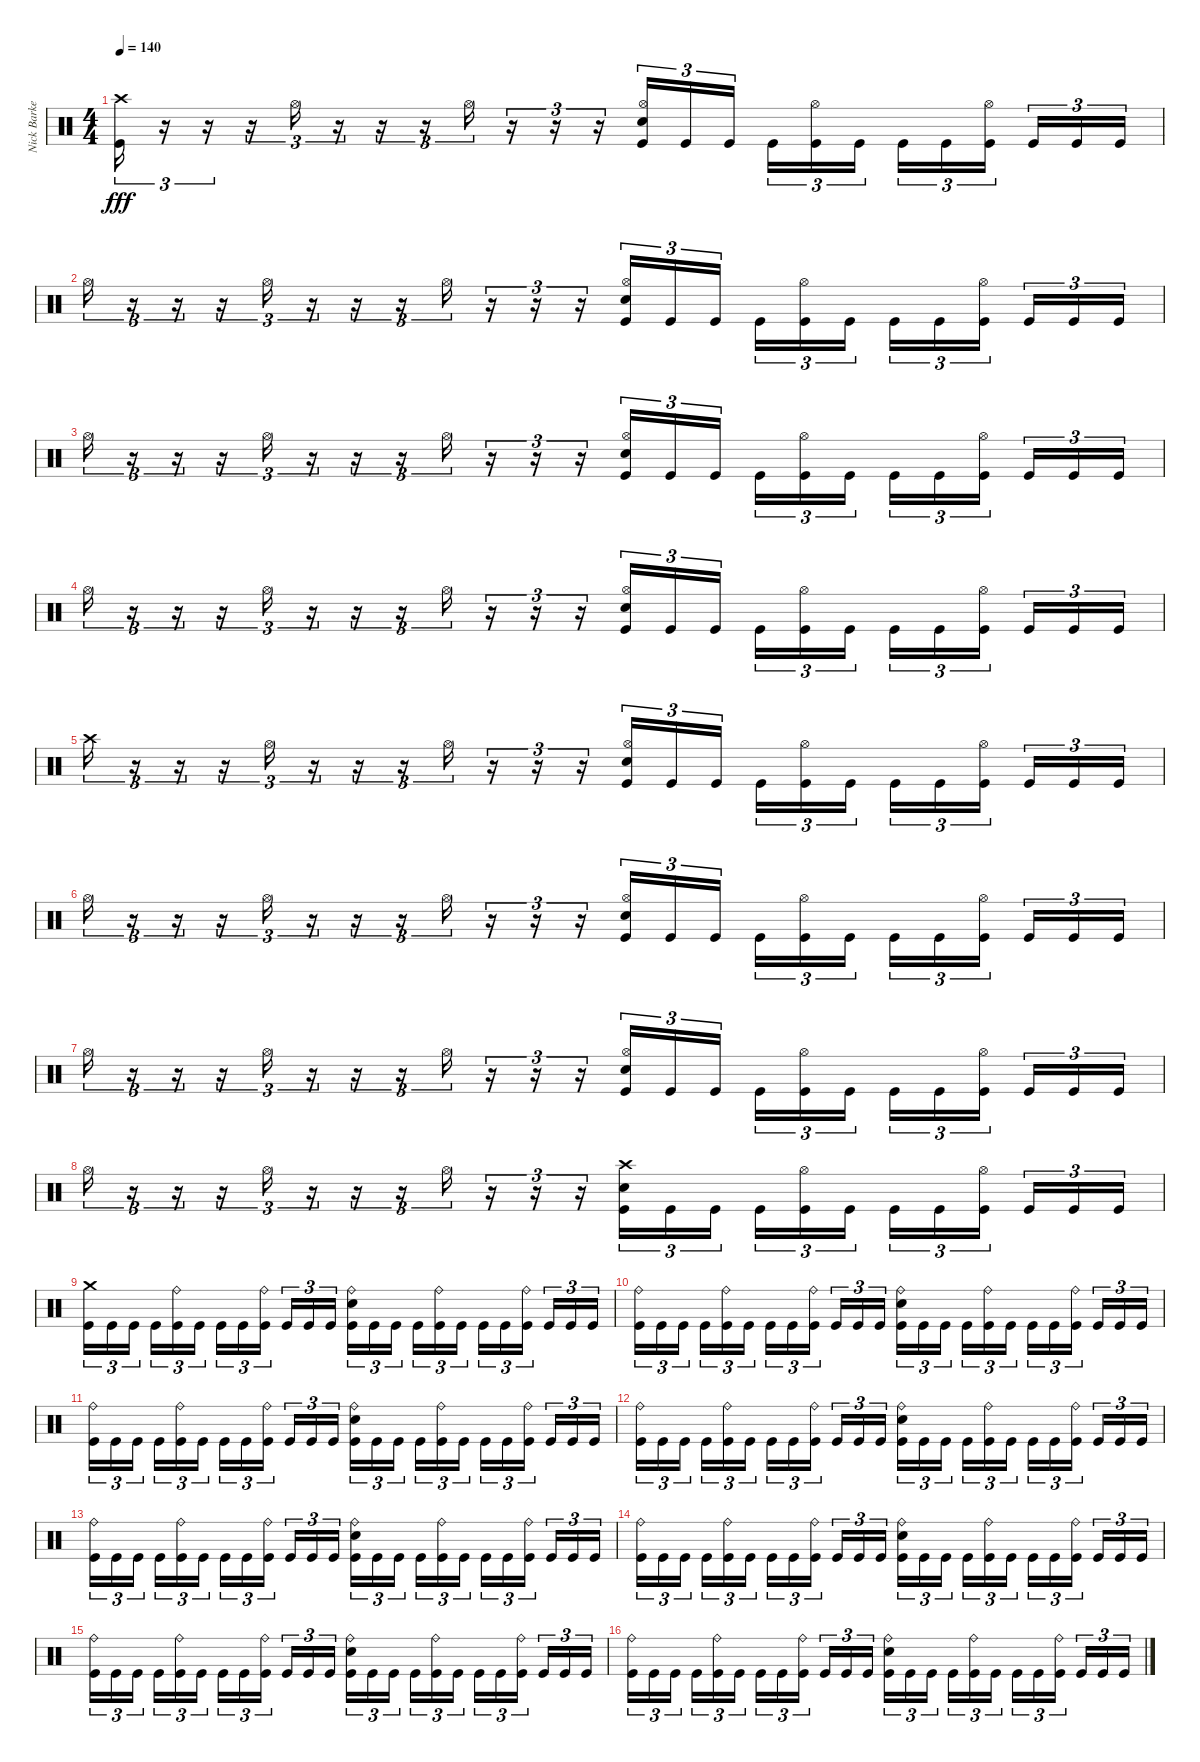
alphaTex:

\track ("Nick Barker" "Nick Barke") {instrument percussion}
\staff {score}
\articulation defaults
\ts (4 4)
\tempo 140
\clef neutral
\ks c
("Crash high (hit)" "Kick (hit)").16{tu (3 2) dy fff} r.16{tu (3 2)} r.16{tu (3 2)} r.16{tu (3 2)} "Hi-Hat (open)".16{tu (3 2)} r.16{tu (3 2)} r.16{tu (3 2)} r.16{tu (3 2)} "Hi-Hat (open)".16{tu (3 2)} r.16{tu (3 2)} r.16{tu (3 2)} r.16{tu (3 2)} ("Hi-Hat (open)" "Electric Snare (hit)" "Kick (hit)").16{tu (3 2)} "Kick (hit)".16{tu (3 2)} "Kick (hit)".16{tu (3 2)} "Kick (hit)".16{tu (3 2)} ("Hi-Hat (open)" "Kick (hit)").16{tu (3 2)} "Kick (hit)".16{tu (3 2)} "Kick (hit)".16{tu (3 2)} "Kick (hit)".16{tu (3 2)} ("Hi-Hat (open)" "Kick (hit)").16{tu (3 2)} "Kick (hit)".16{tu (3 2)} "Kick (hit)".16{tu (3 2)} "Kick (hit)".16{tu (3 2)} |
"Hi-Hat (open)".16{tu (3 2)} r.16{tu (3 2)} r.16{tu (3 2)} r.16{tu (3 2)} "Hi-Hat (open)".16{tu (3 2)} r.16{tu (3 2)} r.16{tu (3 2)} r.16{tu (3 2)} "Hi-Hat (open)".16{tu (3 2)} r.16{tu (3 2)} r.16{tu (3 2)} r.16{tu (3 2)} ("Hi-Hat (open)" "Electric Snare (hit)" "Kick (hit)").16{tu (3 2)} "Kick (hit)".16{tu (3 2)} "Kick (hit)".16{tu (3 2)} "Kick (hit)".16{tu (3 2)} ("Hi-Hat (open)" "Kick (hit)").16{tu (3 2)} "Kick (hit)".16{tu (3 2)} "Kick (hit)".16{tu (3 2)} "Kick (hit)".16{tu (3 2)} ("Hi-Hat (open)" "Kick (hit)").16{tu (3 2)} "Kick (hit)".16{tu (3 2)} "Kick (hit)".16{tu (3 2)} "Kick (hit)".16{tu (3 2)} |
"Hi-Hat (open)".16{tu (3 2)} r.16{tu (3 2)} r.16{tu (3 2)} r.16{tu (3 2)} "Hi-Hat (open)".16{tu (3 2)} r.16{tu (3 2)} r.16{tu (3 2)} r.16{tu (3 2)} "Hi-Hat (open)".16{tu (3 2)} r.16{tu (3 2)} r.16{tu (3 2)} r.16{tu (3 2)} ("Hi-Hat (open)" "Electric Snare (hit)" "Kick (hit)").16{tu (3 2)} "Kick (hit)".16{tu (3 2)} "Kick (hit)".16{tu (3 2)} "Kick (hit)".16{tu (3 2)} ("Hi-Hat (open)" "Kick (hit)").16{tu (3 2)} "Kick (hit)".16{tu (3 2)} "Kick (hit)".16{tu (3 2)} "Kick (hit)".16{tu (3 2)} ("Hi-Hat (open)" "Kick (hit)").16{tu (3 2)} "Kick (hit)".16{tu (3 2)} "Kick (hit)".16{tu (3 2)} "Kick (hit)".16{tu (3 2)} |
"Hi-Hat (open)".16{tu (3 2)} r.16{tu (3 2)} r.16{tu (3 2)} r.16{tu (3 2)} "Hi-Hat (open)".16{tu (3 2)} r.16{tu (3 2)} r.16{tu (3 2)} r.16{tu (3 2)} "Hi-Hat (open)".16{tu (3 2)} r.16{tu (3 2)} r.16{tu (3 2)} r.16{tu (3 2)} ("Hi-Hat (open)" "Electric Snare (hit)" "Kick (hit)").16{tu (3 2)} "Kick (hit)".16{tu (3 2)} "Kick (hit)".16{tu (3 2)} "Kick (hit)".16{tu (3 2)} ("Hi-Hat (open)" "Kick (hit)").16{tu (3 2)} "Kick (hit)".16{tu (3 2)} "Kick (hit)".16{tu (3 2)} "Kick (hit)".16{tu (3 2)} ("Hi-Hat (open)" "Kick (hit)").16{tu (3 2)} "Kick (hit)".16{tu (3 2)} "Kick (hit)".16{tu (3 2)} "Kick (hit)".16{tu (3 2)} |
"Crash high (hit)".16{tu (3 2)} r.16{tu (3 2)} r.16{tu (3 2)} r.16{tu (3 2)} "Hi-Hat (open)".16{tu (3 2)} r.16{tu (3 2)} r.16{tu (3 2)} r.16{tu (3 2)} "Hi-Hat (open)".16{tu (3 2)} r.16{tu (3 2)} r.16{tu (3 2)} r.16{tu (3 2)} ("Hi-Hat (open)" "Electric Snare (hit)" "Kick (hit)").16{tu (3 2)} "Kick (hit)".16{tu (3 2)} "Kick (hit)".16{tu (3 2)} "Kick (hit)".16{tu (3 2)} ("Hi-Hat (open)" "Kick (hit)").16{tu (3 2)} "Kick (hit)".16{tu (3 2)} "Kick (hit)".16{tu (3 2)} "Kick (hit)".16{tu (3 2)} ("Hi-Hat (open)" "Kick (hit)").16{tu (3 2)} "Kick (hit)".16{tu (3 2)} "Kick (hit)".16{tu (3 2)} "Kick (hit)".16{tu (3 2)} |
"Hi-Hat (open)".16{tu (3 2)} r.16{tu (3 2)} r.16{tu (3 2)} r.16{tu (3 2)} "Hi-Hat (open)".16{tu (3 2)} r.16{tu (3 2)} r.16{tu (3 2)} r.16{tu (3 2)} "Hi-Hat (open)".16{tu (3 2)} r.16{tu (3 2)} r.16{tu (3 2)} r.16{tu (3 2)} ("Hi-Hat (open)" "Electric Snare (hit)" "Kick (hit)").16{tu (3 2)} "Kick (hit)".16{tu (3 2)} "Kick (hit)".16{tu (3 2)} "Kick (hit)".16{tu (3 2)} ("Hi-Hat (open)" "Kick (hit)").16{tu (3 2)} "Kick (hit)".16{tu (3 2)} "Kick (hit)".16{tu (3 2)} "Kick (hit)".16{tu (3 2)} ("Hi-Hat (open)" "Kick (hit)").16{tu (3 2)} "Kick (hit)".16{tu (3 2)} "Kick (hit)".16{tu (3 2)} "Kick (hit)".16{tu (3 2)} |
"Hi-Hat (open)".16{tu (3 2)} r.16{tu (3 2)} r.16{tu (3 2)} r.16{tu (3 2)} "Hi-Hat (open)".16{tu (3 2)} r.16{tu (3 2)} r.16{tu (3 2)} r.16{tu (3 2)} "Hi-Hat (open)".16{tu (3 2)} r.16{tu (3 2)} r.16{tu (3 2)} r.16{tu (3 2)} ("Hi-Hat (open)" "Electric Snare (hit)" "Kick (hit)").16{tu (3 2)} "Kick (hit)".16{tu (3 2)} "Kick (hit)".16{tu (3 2)} "Kick (hit)".16{tu (3 2)} ("Hi-Hat (open)" "Kick (hit)").16{tu (3 2)} "Kick (hit)".16{tu (3 2)} "Kick (hit)".16{tu (3 2)} "Kick (hit)".16{tu (3 2)} ("Hi-Hat (open)" "Kick (hit)").16{tu (3 2)} "Kick (hit)".16{tu (3 2)} "Kick (hit)".16{tu (3 2)} "Kick (hit)".16{tu (3 2)} |
"Hi-Hat (open)".16{tu (3 2)} r.16{tu (3 2)} r.16{tu (3 2)} r.16{tu (3 2)} "Hi-Hat (open)".16{tu (3 2)} r.16{tu (3 2)} r.16{tu (3 2)} r.16{tu (3 2)} "Hi-Hat (open)".16{tu (3 2)} r.16{tu (3 2)} r.16{tu (3 2)} r.16{tu (3 2)} ("Crash high (hit)" "Electric Snare (hit)" "Kick (hit)").16{tu (3 2)} "Kick (hit)".16{tu (3 2)} "Kick (hit)".16{tu (3 2)} "Kick (hit)".16{tu (3 2)} ("Hi-Hat (open)" "Kick (hit)").16{tu (3 2)} "Kick (hit)".16{tu (3 2)} "Kick (hit)".16{tu (3 2)} "Kick (hit)".16{tu (3 2)} ("Hi-Hat (open)" "Kick (hit)").16{tu (3 2)} "Kick (hit)".16{tu (3 2)} "Kick (hit)".16{tu (3 2)} "Kick (hit)".16{tu (3 2)} |
("Crash medium (hit)" "Kick (hit)").16{tu (3 2)} "Kick (hit)".16{tu (3 2)} "Kick (hit)".16{tu (3 2)} "Kick (hit)".16{tu (3 2)} ("Ride (bell)" "Kick (hit)").16{tu (3 2)} "Kick (hit)".16{tu (3 2)} "Kick (hit)".16{tu (3 2)} "Kick (hit)".16{tu (3 2)} ("Ride (bell)" "Kick (hit)").16{tu (3 2)} "Kick (hit)".16{tu (3 2)} "Kick (hit)".16{tu (3 2)} "Kick (hit)".16{tu (3 2)} ("Ride (bell)" "Electric Snare (hit)" "Kick (hit)").16{tu (3 2)} "Kick (hit)".16{tu (3 2)} "Kick (hit)".16{tu (3 2)} "Kick (hit)".16{tu (3 2)} ("Ride (bell)" "Kick (hit)").16{tu (3 2)} "Kick (hit)".16{tu (3 2)} "Kick (hit)".16{tu (3 2)} "Kick (hit)".16{tu (3 2)} ("Ride (bell)" "Kick (hit)").16{tu (3 2)} "Kick (hit)".16{tu (3 2)} "Kick (hit)".16{tu (3 2)} "Kick (hit)".16{tu (3 2)} |
("Ride (bell)" "Kick (hit)").16{tu (3 2)} "Kick (hit)".16{tu (3 2)} "Kick (hit)".16{tu (3 2)} "Kick (hit)".16{tu (3 2)} ("Ride (bell)" "Kick (hit)").16{tu (3 2)} "Kick (hit)".16{tu (3 2)} "Kick (hit)".16{tu (3 2)} "Kick (hit)".16{tu (3 2)} ("Ride (bell)" "Kick (hit)").16{tu (3 2)} "Kick (hit)".16{tu (3 2)} "Kick (hit)".16{tu (3 2)} "Kick (hit)".16{tu (3 2)} ("Ride (bell)" "Electric Snare (hit)" "Kick (hit)").16{tu (3 2)} "Kick (hit)".16{tu (3 2)} "Kick (hit)".16{tu (3 2)} "Kick (hit)".16{tu (3 2)} ("Ride (bell)" "Kick (hit)").16{tu (3 2)} "Kick (hit)".16{tu (3 2)} "Kick (hit)".16{tu (3 2)} "Kick (hit)".16{tu (3 2)} ("Ride (bell)" "Kick (hit)").16{tu (3 2)} "Kick (hit)".16{tu (3 2)} "Kick (hit)".16{tu (3 2)} "Kick (hit)".16{tu (3 2)} |
("Ride (bell)" "Kick (hit)").16{tu (3 2)} "Kick (hit)".16{tu (3 2)} "Kick (hit)".16{tu (3 2)} "Kick (hit)".16{tu (3 2)} ("Ride (bell)" "Kick (hit)").16{tu (3 2)} "Kick (hit)".16{tu (3 2)} "Kick (hit)".16{tu (3 2)} "Kick (hit)".16{tu (3 2)} ("Ride (bell)" "Kick (hit)").16{tu (3 2)} "Kick (hit)".16{tu (3 2)} "Kick (hit)".16{tu (3 2)} "Kick (hit)".16{tu (3 2)} ("Ride (bell)" "Electric Snare (hit)" "Kick (hit)").16{tu (3 2)} "Kick (hit)".16{tu (3 2)} "Kick (hit)".16{tu (3 2)} "Kick (hit)".16{tu (3 2)} ("Ride (bell)" "Kick (hit)").16{tu (3 2)} "Kick (hit)".16{tu (3 2)} "Kick (hit)".16{tu (3 2)} "Kick (hit)".16{tu (3 2)} ("Ride (bell)" "Kick (hit)").16{tu (3 2)} "Kick (hit)".16{tu (3 2)} "Kick (hit)".16{tu (3 2)} "Kick (hit)".16{tu (3 2)} |
("Ride (bell)" "Kick (hit)").16{tu (3 2)} "Kick (hit)".16{tu (3 2)} "Kick (hit)".16{tu (3 2)} "Kick (hit)".16{tu (3 2)} ("Ride (bell)" "Kick (hit)").16{tu (3 2)} "Kick (hit)".16{tu (3 2)} "Kick (hit)".16{tu (3 2)} "Kick (hit)".16{tu (3 2)} ("Ride (bell)" "Kick (hit)").16{tu (3 2)} "Kick (hit)".16{tu (3 2)} "Kick (hit)".16{tu (3 2)} "Kick (hit)".16{tu (3 2)} ("Ride (bell)" "Electric Snare (hit)" "Kick (hit)").16{tu (3 2)} "Kick (hit)".16{tu (3 2)} "Kick (hit)".16{tu (3 2)} "Kick (hit)".16{tu (3 2)} ("Ride (bell)" "Kick (hit)").16{tu (3 2)} "Kick (hit)".16{tu (3 2)} "Kick (hit)".16{tu (3 2)} "Kick (hit)".16{tu (3 2)} ("Ride (bell)" "Kick (hit)").16{tu (3 2)} "Kick (hit)".16{tu (3 2)} "Kick (hit)".16{tu (3 2)} "Kick (hit)".16{tu (3 2)} |
("Ride (bell)" "Kick (hit)").16{tu (3 2)} "Kick (hit)".16{tu (3 2)} "Kick (hit)".16{tu (3 2)} "Kick (hit)".16{tu (3 2)} ("Ride (bell)" "Kick (hit)").16{tu (3 2)} "Kick (hit)".16{tu (3 2)} "Kick (hit)".16{tu (3 2)} "Kick (hit)".16{tu (3 2)} ("Ride (bell)" "Kick (hit)").16{tu (3 2)} "Kick (hit)".16{tu (3 2)} "Kick (hit)".16{tu (3 2)} "Kick (hit)".16{tu (3 2)} ("Ride (bell)" "Electric Snare (hit)" "Kick (hit)").16{tu (3 2)} "Kick (hit)".16{tu (3 2)} "Kick (hit)".16{tu (3 2)} "Kick (hit)".16{tu (3 2)} ("Ride (bell)" "Kick (hit)").16{tu (3 2)} "Kick (hit)".16{tu (3 2)} "Kick (hit)".16{tu (3 2)} "Kick (hit)".16{tu (3 2)} ("Ride (bell)" "Kick (hit)").16{tu (3 2)} "Kick (hit)".16{tu (3 2)} "Kick (hit)".16{tu (3 2)} "Kick (hit)".16{tu (3 2)} |
("Ride (bell)" "Kick (hit)").16{tu (3 2)} "Kick (hit)".16{tu (3 2)} "Kick (hit)".16{tu (3 2)} "Kick (hit)".16{tu (3 2)} ("Ride (bell)" "Kick (hit)").16{tu (3 2)} "Kick (hit)".16{tu (3 2)} "Kick (hit)".16{tu (3 2)} "Kick (hit)".16{tu (3 2)} ("Ride (bell)" "Kick (hit)").16{tu (3 2)} "Kick (hit)".16{tu (3 2)} "Kick (hit)".16{tu (3 2)} "Kick (hit)".16{tu (3 2)} ("Ride (bell)" "Electric Snare (hit)" "Kick (hit)").16{tu (3 2)} "Kick (hit)".16{tu (3 2)} "Kick (hit)".16{tu (3 2)} "Kick (hit)".16{tu (3 2)} ("Ride (bell)" "Kick (hit)").16{tu (3 2)} "Kick (hit)".16{tu (3 2)} "Kick (hit)".16{tu (3 2)} "Kick (hit)".16{tu (3 2)} ("Ride (bell)" "Kick (hit)").16{tu (3 2)} "Kick (hit)".16{tu (3 2)} "Kick (hit)".16{tu (3 2)} "Kick (hit)".16{tu (3 2)} |
("Ride (bell)" "Kick (hit)").16{tu (3 2)} "Kick (hit)".16{tu (3 2)} "Kick (hit)".16{tu (3 2)} "Kick (hit)".16{tu (3 2)} ("Ride (bell)" "Kick (hit)").16{tu (3 2)} "Kick (hit)".16{tu (3 2)} "Kick (hit)".16{tu (3 2)} "Kick (hit)".16{tu (3 2)} ("Ride (bell)" "Kick (hit)").16{tu (3 2)} "Kick (hit)".16{tu (3 2)} "Kick (hit)".16{tu (3 2)} "Kick (hit)".16{tu (3 2)} ("Ride (bell)" "Electric Snare (hit)" "Kick (hit)").16{tu (3 2)} "Kick (hit)".16{tu (3 2)} "Kick (hit)".16{tu (3 2)} "Kick (hit)".16{tu (3 2)} ("Ride (bell)" "Kick (hit)").16{tu (3 2)} "Kick (hit)".16{tu (3 2)} "Kick (hit)".16{tu (3 2)} "Kick (hit)".16{tu (3 2)} ("Ride (bell)" "Kick (hit)").16{tu (3 2)} "Kick (hit)".16{tu (3 2)} "Kick (hit)".16{tu (3 2)} "Kick (hit)".16{tu (3 2)} |
("Ride (bell)" "Kick (hit)").16{tu (3 2)} "Kick (hit)".16{tu (3 2)} "Kick (hit)".16{tu (3 2)} "Kick (hit)".16{tu (3 2)} ("Ride (bell)" "Kick (hit)").16{tu (3 2)} "Kick (hit)".16{tu (3 2)} "Kick (hit)".16{tu (3 2)} "Kick (hit)".16{tu (3 2)} ("Ride (bell)" "Kick (hit)").16{tu (3 2)} "Kick (hit)".16{tu (3 2)} "Kick (hit)".16{tu (3 2)} "Kick (hit)".16{tu (3 2)} ("Ride (bell)" "Electric Snare (hit)" "Kick (hit)").16{tu (3 2)} "Kick (hit)".16{tu (3 2)} "Kick (hit)".16{tu (3 2)} "Kick (hit)".16{tu (3 2)} ("Ride (bell)" "Kick (hit)").16{tu (3 2)} "Kick (hit)".16{tu (3 2)} "Kick (hit)".16{tu (3 2)} "Kick (hit)".16{tu (3 2)} ("Ride (bell)" "Kick (hit)").16{tu (3 2)} "Kick (hit)".16{tu (3 2)} "Kick (hit)".16{tu (3 2)} "Kick (hit)".16{tu (3 2)}
